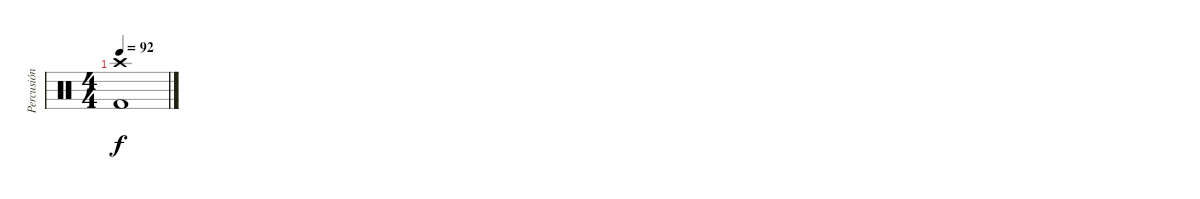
\track ("Percusión" "Percusión") {instrument percussion}
\staff {score}
\articulation defaults
\ts (4 4)
\tempo 92
\clef neutral
\ks c
("Crash high (hit)" "Kick (hit) 2").1{dy f}
